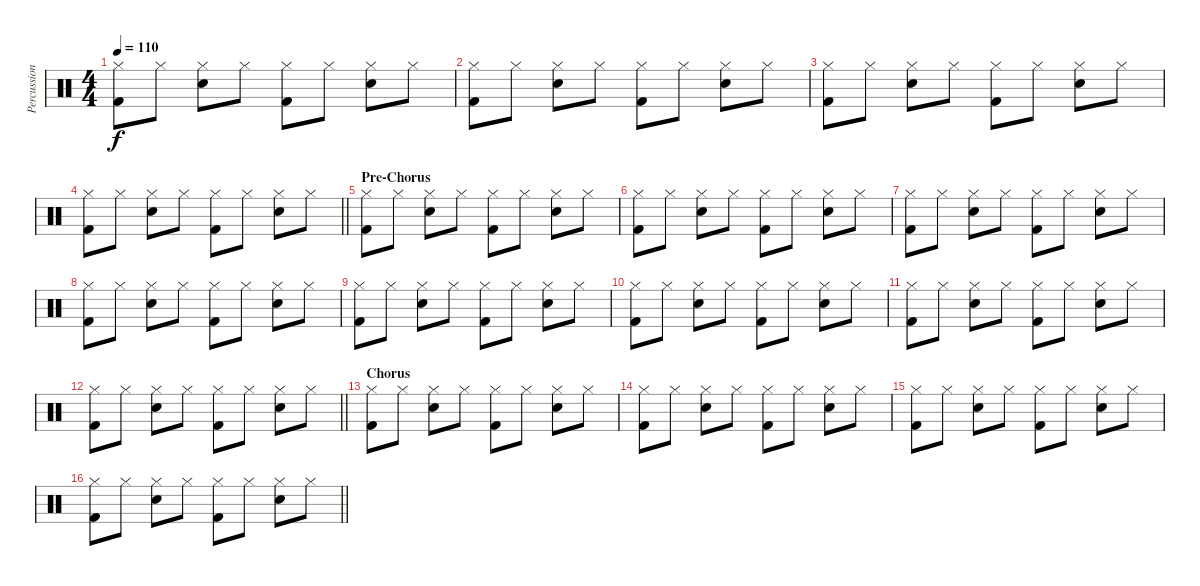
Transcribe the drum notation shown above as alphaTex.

\track ("Percussion" "Percussion") {instrument percussion}
\staff {score}
\articulation defaults
\ts (4 4)
\tempo 110
\clef neutral
\ks c
("Hi-Hat (closed)" "Kick (hit) 2").8{dy f} "Hi-Hat (closed)".8 ("Hi-Hat (closed)" "Electric Snare (hit)").8 "Hi-Hat (closed)".8 ("Hi-Hat (closed)" "Kick (hit) 2").8 "Hi-Hat (closed)".8 ("Hi-Hat (closed)" "Electric Snare (hit)").8 "Hi-Hat (closed)".8 |
("Hi-Hat (closed)" "Kick (hit) 2").8 "Hi-Hat (closed)".8 ("Hi-Hat (closed)" "Electric Snare (hit)").8 "Hi-Hat (closed)".8 ("Hi-Hat (closed)" "Kick (hit) 2").8 "Hi-Hat (closed)".8 ("Hi-Hat (closed)" "Electric Snare (hit)").8 "Hi-Hat (closed)".8 |
("Hi-Hat (closed)" "Kick (hit) 2").8 "Hi-Hat (closed)".8 ("Hi-Hat (closed)" "Electric Snare (hit)").8 "Hi-Hat (closed)".8 ("Hi-Hat (closed)" "Kick (hit) 2").8 "Hi-Hat (closed)".8 ("Hi-Hat (closed)" "Electric Snare (hit)").8 "Hi-Hat (closed)".8 |
\barLineRight lightlight
("Hi-Hat (closed)" "Kick (hit) 2").8 "Hi-Hat (closed)".8 ("Hi-Hat (closed)" "Electric Snare (hit)").8 "Hi-Hat (closed)".8 ("Hi-Hat (closed)" "Kick (hit) 2").8 "Hi-Hat (closed)".8 ("Hi-Hat (closed)" "Electric Snare (hit)").8 "Hi-Hat (closed)".8 |
\section ("" "Pre-Chorus")
("Hi-Hat (closed)" "Kick (hit) 2").8 "Hi-Hat (closed)".8 ("Hi-Hat (closed)" "Electric Snare (hit)").8 "Hi-Hat (closed)".8 ("Hi-Hat (closed)" "Kick (hit) 2").8 "Hi-Hat (closed)".8 ("Hi-Hat (closed)" "Electric Snare (hit)").8 "Hi-Hat (closed)".8 |
("Hi-Hat (closed)" "Kick (hit) 2").8 "Hi-Hat (closed)".8 ("Hi-Hat (closed)" "Electric Snare (hit)").8 "Hi-Hat (closed)".8 ("Hi-Hat (closed)" "Kick (hit) 2").8 "Hi-Hat (closed)".8 ("Hi-Hat (closed)" "Electric Snare (hit)").8 "Hi-Hat (closed)".8 |
("Hi-Hat (closed)" "Kick (hit) 2").8 "Hi-Hat (closed)".8 ("Hi-Hat (closed)" "Electric Snare (hit)").8 "Hi-Hat (closed)".8 ("Hi-Hat (closed)" "Kick (hit) 2").8 "Hi-Hat (closed)".8 ("Hi-Hat (closed)" "Electric Snare (hit)").8 "Hi-Hat (closed)".8 |
("Hi-Hat (closed)" "Kick (hit) 2").8 "Hi-Hat (closed)".8 ("Hi-Hat (closed)" "Electric Snare (hit)").8 "Hi-Hat (closed)".8 ("Hi-Hat (closed)" "Kick (hit) 2").8 "Hi-Hat (closed)".8 ("Hi-Hat (closed)" "Electric Snare (hit)").8 "Hi-Hat (closed)".8 |
("Hi-Hat (closed)" "Kick (hit) 2").8 "Hi-Hat (closed)".8 ("Hi-Hat (closed)" "Electric Snare (hit)").8 "Hi-Hat (closed)".8 ("Hi-Hat (closed)" "Kick (hit) 2").8 "Hi-Hat (closed)".8 ("Hi-Hat (closed)" "Electric Snare (hit)").8 "Hi-Hat (closed)".8 |
("Hi-Hat (closed)" "Kick (hit) 2").8 "Hi-Hat (closed)".8 ("Hi-Hat (closed)" "Electric Snare (hit)").8 "Hi-Hat (closed)".8 ("Hi-Hat (closed)" "Kick (hit) 2").8 "Hi-Hat (closed)".8 ("Hi-Hat (closed)" "Electric Snare (hit)").8 "Hi-Hat (closed)".8 |
("Hi-Hat (closed)" "Kick (hit) 2").8 "Hi-Hat (closed)".8 ("Hi-Hat (closed)" "Electric Snare (hit)").8 "Hi-Hat (closed)".8 ("Hi-Hat (closed)" "Kick (hit) 2").8 "Hi-Hat (closed)".8 ("Hi-Hat (closed)" "Electric Snare (hit)").8 "Hi-Hat (closed)".8 |
\barLineRight lightlight
("Hi-Hat (closed)" "Kick (hit) 2").8 "Hi-Hat (closed)".8 ("Hi-Hat (closed)" "Electric Snare (hit)").8 "Hi-Hat (closed)".8 ("Hi-Hat (closed)" "Kick (hit) 2").8 "Hi-Hat (closed)".8 ("Hi-Hat (closed)" "Electric Snare (hit)").8 "Hi-Hat (closed)".8 |
\section ("" "Chorus")
("Hi-Hat (closed)" "Kick (hit) 2").8 "Hi-Hat (closed)".8 ("Hi-Hat (closed)" "Electric Snare (hit)").8 "Hi-Hat (closed)".8 ("Hi-Hat (closed)" "Kick (hit) 2").8 "Hi-Hat (closed)".8 ("Hi-Hat (closed)" "Electric Snare (hit)").8 "Hi-Hat (closed)".8 |
("Hi-Hat (closed)" "Kick (hit) 2").8 "Hi-Hat (closed)".8 ("Hi-Hat (closed)" "Electric Snare (hit)").8 "Hi-Hat (closed)".8 ("Hi-Hat (closed)" "Kick (hit) 2").8 "Hi-Hat (closed)".8 ("Hi-Hat (closed)" "Electric Snare (hit)").8 "Hi-Hat (closed)".8 |
("Hi-Hat (closed)" "Kick (hit) 2").8 "Hi-Hat (closed)".8 ("Hi-Hat (closed)" "Electric Snare (hit)").8 "Hi-Hat (closed)".8 ("Hi-Hat (closed)" "Kick (hit) 2").8 "Hi-Hat (closed)".8 ("Hi-Hat (closed)" "Electric Snare (hit)").8 "Hi-Hat (closed)".8 |
\barLineRight lightlight
("Hi-Hat (closed)" "Kick (hit) 2").8 "Hi-Hat (closed)".8 ("Hi-Hat (closed)" "Electric Snare (hit)").8 "Hi-Hat (closed)".8 ("Hi-Hat (closed)" "Kick (hit) 2").8 "Hi-Hat (closed)".8 ("Hi-Hat (closed)" "Electric Snare (hit)").8 "Hi-Hat (closed)".8
